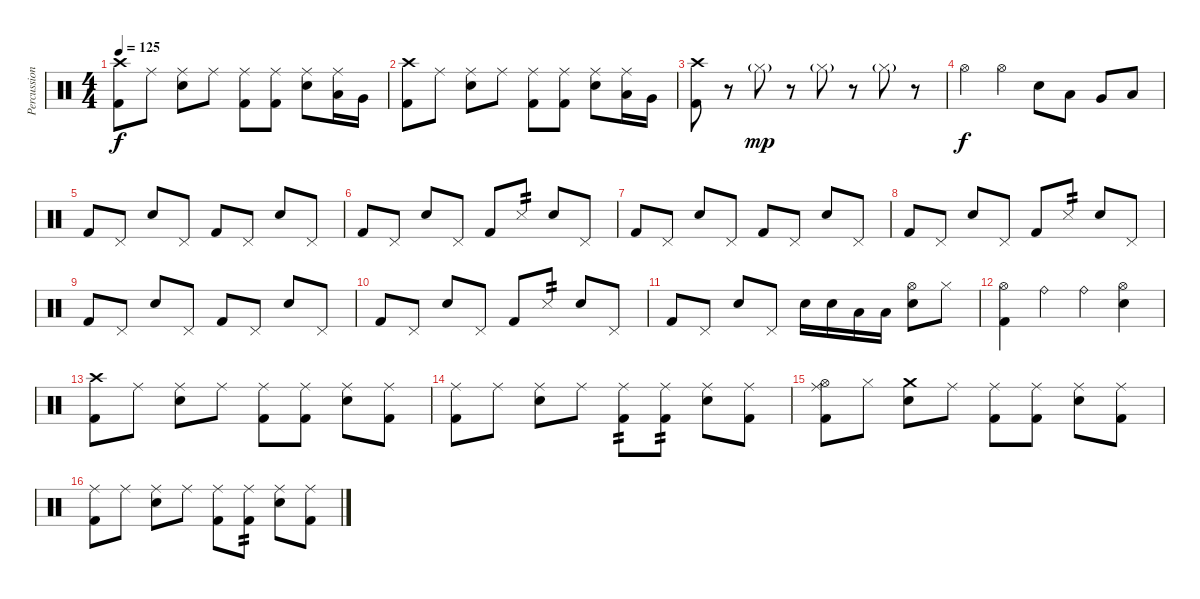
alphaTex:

\track ("Percussion" "Percussion") {instrument percussion}
\staff {score}
\articulation defaults
\ts (4 4)
\tempo 125
\clef neutral
\ks c
("Crash high (hit)" "Kick (hit) 2").8{dy f} "Ride (middle)".8 ("Ride (middle)" "Electric Snare (hit)").8 "Ride (middle)".8 ("Ride (middle)" "Kick (hit) 2").8 ("Ride (middle)" "Kick (hit) 2").8 ("Ride (middle)" "Electric Snare (hit)").8 ("Ride (middle)" "Low Tom (hit)").16 "Very Low Tom (hit)".16 |
("Crash high (hit)" "Kick (hit) 2").8 "Ride (middle)".8 ("Ride (middle)" "Electric Snare (hit)").8 "Ride (middle)".8 ("Ride (middle)" "Kick (hit) 2").8 ("Ride (middle)" "Kick (hit) 2").8 ("Ride (middle)" "Electric Snare (hit)").8 ("Ride (middle)" "Low Tom (hit)").16 "Very Low Tom (hit)".16 |
("Crash high (hit)" "Kick (hit) 2").8 r.8 "Hi-Hat (closed)"{g}.8{dy mp} r.8 "Hi-Hat (closed)"{g}.8 r.8 "Hi-Hat (closed)"{g}.8 r.8 |
"Hi-Hat (open)".4{dy f} "Hi-Hat (open)".4 "Electric Snare (hit)".8 "Low Tom (hit)".8 "Very Low Tom (hit)".8 "Low Floor Tom (hit)".8 |
\section ("" "")
"Kick (hit) 2".8 "Pedal Hi-Hat (hit)".8 "Electric Snare (hit)".8 "Pedal Hi-Hat (hit)".8 "Kick (hit) 2".8 "Pedal Hi-Hat (hit)".8 "Electric Snare (hit)".8 "Pedal Hi-Hat (hit)".8 |
"Kick (hit) 2".8 "Pedal Hi-Hat (hit)".8 "Electric Snare (hit)".8 "Pedal Hi-Hat (hit)".8 "Kick (hit) 2".8 "Snare (side stick) 3".8{tp 2} "Electric Snare (hit)".8 "Pedal Hi-Hat (hit)".8 |
"Kick (hit) 2".8 "Pedal Hi-Hat (hit)".8 "Electric Snare (hit)".8 "Pedal Hi-Hat (hit)".8 "Kick (hit) 2".8 "Pedal Hi-Hat (hit)".8 "Electric Snare (hit)".8 "Pedal Hi-Hat (hit)".8 |
"Kick (hit) 2".8 "Pedal Hi-Hat (hit)".8 "Electric Snare (hit)".8 "Pedal Hi-Hat (hit)".8 "Kick (hit) 2".8 "Snare (side stick) 3".8{tp 2} "Electric Snare (hit)".8 "Pedal Hi-Hat (hit)".8 |
"Kick (hit) 2".8 "Pedal Hi-Hat (hit)".8 "Electric Snare (hit)".8 "Pedal Hi-Hat (hit)".8 "Kick (hit) 2".8 "Pedal Hi-Hat (hit)".8 "Electric Snare (hit)".8 "Pedal Hi-Hat (hit)".8 |
"Kick (hit) 2".8 "Pedal Hi-Hat (hit)".8 "Electric Snare (hit)".8 "Pedal Hi-Hat (hit)".8 "Kick (hit) 2".8 "Snare (side stick) 3".8{tp 2} "Electric Snare (hit)".8 "Pedal Hi-Hat (hit)".8 |
"Kick (hit) 2".8 "Pedal Hi-Hat (hit)".8 "Electric Snare (hit)".8 "Pedal Hi-Hat (hit)".8 "Electric Snare (hit)".16 "Electric Snare (hit)".16 "Low Floor Tom (hit)".16 "Low Floor Tom (hit)".16 ("Hi-Hat (open)" "Electric Snare (hit)").8 "Hi-Hat (closed)".8 |
("Hi-Hat (open)" "Kick (hit) 2").4 "Ride (bell)".4 "Ride (bell)".4 ("Hi-Hat (open)" "Electric Snare (hit)").4 |
\section ("" "")
("Crash high (hit)" "Kick (hit) 2").8 "Ride (middle)".8 ("Ride (middle)" "Electric Snare (hit)").8 "Ride (middle)".8 ("Ride (middle)" "Kick (hit) 2").8 ("Ride (middle)" "Kick (hit) 2").8 ("Ride (middle)" "Electric Snare (hit)").8 ("Ride (middle)" "Kick (hit) 2").8 |
("Ride (middle)" "Kick (hit) 2").8 "Ride (middle)".8 ("Ride (middle)" "Electric Snare (hit)").8 "Ride (middle)".8 ("Ride (middle)" "Kick (hit) 2").8{tp 2} ("Ride (middle)" "Kick (hit) 2").8{tp 2} ("Ride (middle)" "Electric Snare (hit)").8 ("Ride (middle)" "Kick (hit) 2").8 |
("Hi-Hat (open)" "Ride (middle)" "Kick (hit) 2").8 "Hi-Hat (closed)".8 ("Crash medium (hit)" "Electric Snare (hit)").8 "Ride (middle)".8 ("Ride (middle)" "Kick (hit) 2").8 ("Ride (middle)" "Kick (hit) 2").8 ("Ride (middle)" "Electric Snare (hit)").8 ("Ride (middle)" "Kick (hit) 2").8 |
("Ride (middle)" "Kick (hit) 2").8 "Ride (middle)".8 ("Ride (middle)" "Electric Snare (hit)").8 "Ride (middle)".8 ("Ride (middle)" "Kick (hit) 2").8 ("Ride (middle)" "Kick (hit) 2").8{tp 2} ("Ride (middle)" "Electric Snare (hit)").8 ("Ride (middle)" "Kick (hit) 2").8
